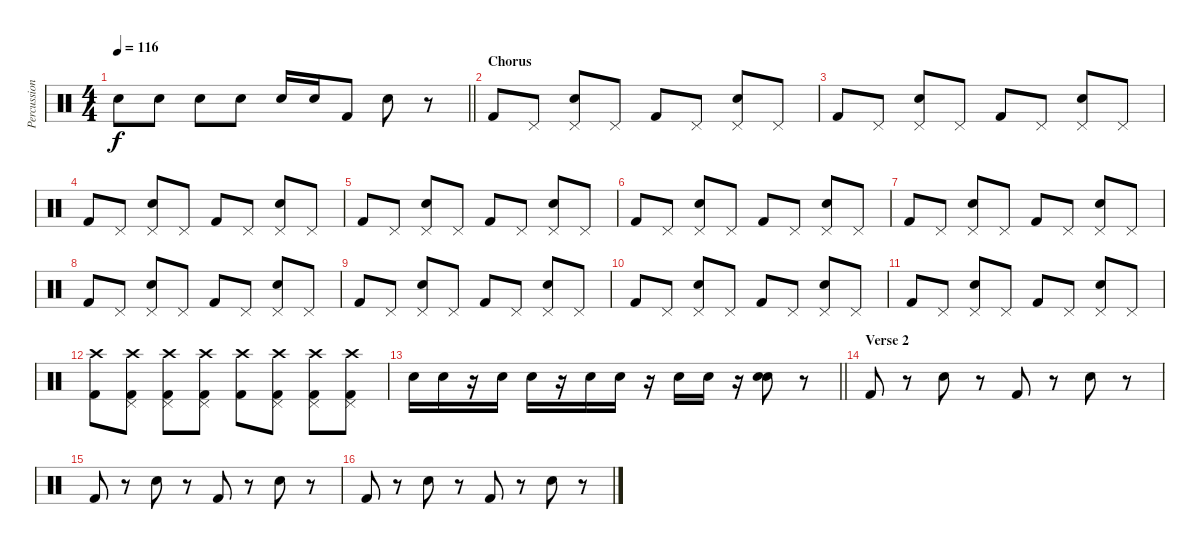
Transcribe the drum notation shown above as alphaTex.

\track ("Percussion" "Percussion") {instrument percussion}
\staff {score}
\articulation defaults
\ts (4 4)
\tempo 116
\clef neutral
\barLineRight lightlight
\ks c "Snare (hit) 2".8{dy f} "Snare (hit) 2".8 "Snare (hit) 2".8 "Snare (hit) 2".8 "Snare (hit) 2".16 "Snare (hit) 2".16 "Kick (hit) 2".8 "Snare (hit) 2".8
r.8 |
\section ("" "Chorus")
"Kick (hit) 2".8 "Pedal Hi-Hat (hit)".8 ("Pedal Hi-Hat (hit)" "Snare (hit) 2").8 "Pedal Hi-Hat (hit)".8 "Kick (hit) 2".8 "Pedal Hi-Hat (hit)".8 ("Pedal Hi-Hat (hit)" "Snare (hit) 2").8 "Pedal Hi-Hat (hit)".8 |
"Kick (hit) 2".8 "Pedal Hi-Hat (hit)".8 ("Pedal Hi-Hat (hit)" "Snare (hit) 2").8 "Pedal Hi-Hat (hit)".8 "Kick (hit) 2".8 "Pedal Hi-Hat (hit)".8 ("Pedal Hi-Hat (hit)" "Snare (hit) 2").8 "Pedal Hi-Hat (hit)".8 |
"Kick (hit) 2".8 "Pedal Hi-Hat (hit)".8 ("Pedal Hi-Hat (hit)" "Snare (hit) 2").8 "Pedal Hi-Hat (hit)".8 "Kick (hit) 2".8 "Pedal Hi-Hat (hit)".8 ("Pedal Hi-Hat (hit)" "Snare (hit) 2").8 "Pedal Hi-Hat (hit)".8 |
"Kick (hit) 2".8 "Pedal Hi-Hat (hit)".8 ("Pedal Hi-Hat (hit)" "Snare (hit) 2").8 "Pedal Hi-Hat (hit)".8 "Kick (hit) 2".8 "Pedal Hi-Hat (hit)".8 ("Pedal Hi-Hat (hit)" "Snare (hit) 2").8 "Pedal Hi-Hat (hit)".8 |
"Kick (hit) 2".8 "Pedal Hi-Hat (hit)".8 ("Pedal Hi-Hat (hit)" "Snare (hit) 2").8 "Pedal Hi-Hat (hit)".8 "Kick (hit) 2".8 "Pedal Hi-Hat (hit)".8 ("Pedal Hi-Hat (hit)" "Snare (hit) 2").8 "Pedal Hi-Hat (hit)".8 |
"Kick (hit) 2".8 "Pedal Hi-Hat (hit)".8 ("Pedal Hi-Hat (hit)" "Snare (hit) 2").8 "Pedal Hi-Hat (hit)".8 "Kick (hit) 2".8 "Pedal Hi-Hat (hit)".8 ("Pedal Hi-Hat (hit)" "Snare (hit) 2").8 "Pedal Hi-Hat (hit)".8 |
"Kick (hit) 2".8 "Pedal Hi-Hat (hit)".8 ("Pedal Hi-Hat (hit)" "Snare (hit) 2").8 "Pedal Hi-Hat (hit)".8 "Kick (hit) 2".8 "Pedal Hi-Hat (hit)".8 ("Pedal Hi-Hat (hit)" "Snare (hit) 2").8 "Pedal Hi-Hat (hit)".8 |
"Kick (hit) 2".8 "Pedal Hi-Hat (hit)".8 ("Pedal Hi-Hat (hit)" "Snare (hit) 2").8 "Pedal Hi-Hat (hit)".8 "Kick (hit) 2".8 "Pedal Hi-Hat (hit)".8 ("Pedal Hi-Hat (hit)" "Snare (hit) 2").8 "Pedal Hi-Hat (hit)".8 |
"Kick (hit) 2".8 "Pedal Hi-Hat (hit)".8 ("Pedal Hi-Hat (hit)" "Snare (hit) 2").8 "Pedal Hi-Hat (hit)".8 "Kick (hit) 2".8 "Pedal Hi-Hat (hit)".8 ("Pedal Hi-Hat (hit)" "Snare (hit) 2").8 "Pedal Hi-Hat (hit)".8 |
"Kick (hit) 2".8 "Pedal Hi-Hat (hit)".8 ("Pedal Hi-Hat (hit)" "Snare (hit) 2").8 "Pedal Hi-Hat (hit)".8 "Kick (hit) 2".8 "Pedal Hi-Hat (hit)".8 ("Pedal Hi-Hat (hit)" "Snare (hit) 2").8 "Pedal Hi-Hat (hit)".8 |
("Crash high (hit)" "Kick (hit) 2").8 ("Crash high (hit)" "Pedal Hi-Hat (hit)" "Kick (hit) 2").8 ("Crash high (hit)" "Pedal Hi-Hat (hit)" "Kick (hit) 2").8 ("Crash high (hit)" "Pedal Hi-Hat (hit)" "Kick (hit) 2").8 ("Crash high (hit)" "Kick (hit) 2").8 ("Crash high (hit)" "Pedal Hi-Hat (hit)" "Kick (hit) 2").8 ("Crash high (hit)" "Pedal Hi-Hat (hit)" "Kick (hit) 2").8 ("Crash high (hit)" "Pedal Hi-Hat (hit)" "Kick (hit) 2").8 |
\barLineRight lightlight "Snare (hit) 2".16 "Snare (hit) 2".16
r.16 "Snare (hit) 2".16 "Snare (hit) 2".16 r.16 "Snare (hit) 2".16 "Snare (hit) 2".16 r.16 "Snare (hit) 2".16 "Snare (hit) 2".16 r.16 ("Hand Clap (hit)" "Snare (hit) 2").8 r.8 |
\section ("" "Verse 2")
"Kick (hit) 2".8 r.8 "Snare (hit) 2".8 r.8 "Kick (hit) 2".8 r.8 "Snare (hit) 2".8 r.8 |
"Kick (hit) 2".8 r.8 "Snare (hit) 2".8 r.8 "Kick (hit) 2".8 r.8 "Snare (hit) 2".8 r.8 |
"Kick (hit) 2".8 r.8 "Snare (hit) 2".8 r.8 "Kick (hit) 2".8 r.8 "Snare (hit) 2".8 r.8
